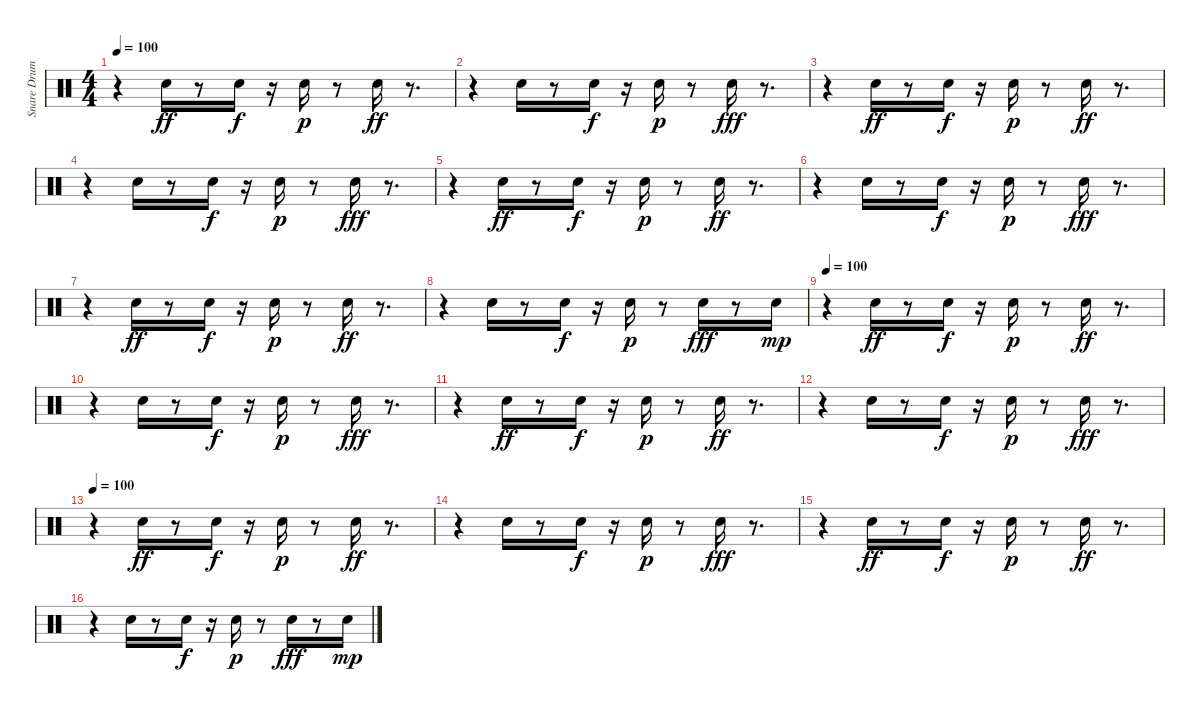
\track ("Snare Drums" "Snare Drum") {instrument percussion}
\staff {score}
\articulation defaults
\ts (4 4)
\tempo 100
\clef neutral
\ks c
r.4{dy fff} "Snare (hit) 2".16{dy ff} r.8 "Electric Snare (hit)".16{dy f} r.16 "Electric Snare (hit)".16{dy p} r.8 "Snare (hit) 2".16{dy ff} r.8{d} |
r.4 "Snare (hit) 2".16 r.8 "Electric Snare (hit)".16{dy f} r.16 "Electric Snare (hit)".16{dy p} r.8 "Snare (hit) 2".16{dy fff} r.8{d} |
r.4 "Snare (hit) 2".16{dy ff} r.8 "Electric Snare (hit)".16{dy f} r.16 "Electric Snare (hit)".16{dy p} r.8 "Snare (hit) 2".16{dy ff} r.8{d} |
r.4 "Snare (hit) 2".16 r.8 "Electric Snare (hit)".16{dy f} r.16 "Electric Snare (hit)".16{dy p} r.8 "Snare (hit) 2".16{dy fff} r.8{d} |
r.4 "Snare (hit) 2".16{dy ff} r.8 "Electric Snare (hit)".16{dy f} r.16 "Electric Snare (hit)".16{dy p} r.8 "Snare (hit) 2".16{dy ff} r.8{d} |
r.4 "Snare (hit) 2".16 r.8 "Electric Snare (hit)".16{dy f} r.16 "Electric Snare (hit)".16{dy p} r.8 "Snare (hit) 2".16{dy fff} r.8{d} |
r.4 "Snare (hit) 2".16{dy ff} r.8 "Electric Snare (hit)".16{dy f} r.16 "Electric Snare (hit)".16{dy p} r.8 "Snare (hit) 2".16{dy ff} r.8{d} |
r.4 "Snare (hit) 2".16 r.8 "Electric Snare (hit)".16{dy f} r.16 "Electric Snare (hit)".16{dy p} r.8 "Snare (hit) 2".16{dy fff} r.8 "Snare (hit) 2".16{dy mp} |
\tempo 100
r.4 "Snare (hit) 2".16{dy ff} r.8 "Electric Snare (hit)".16{dy f} r.16 "Electric Snare (hit)".16{dy p} r.8 "Snare (hit) 2".16{dy ff} r.8{d} |
r.4 "Snare (hit) 2".16 r.8 "Electric Snare (hit)".16{dy f} r.16 "Electric Snare (hit)".16{dy p} r.8 "Snare (hit) 2".16{dy fff} r.8{d} |
r.4 "Snare (hit) 2".16{dy ff} r.8 "Electric Snare (hit)".16{dy f} r.16 "Electric Snare (hit)".16{dy p} r.8 "Snare (hit) 2".16{dy ff} r.8{d} |
r.4 "Snare (hit) 2".16 r.8 "Electric Snare (hit)".16{dy f} r.16 "Electric Snare (hit)".16{dy p} r.8 "Snare (hit) 2".16{dy fff} r.8{d} |
\tempo 100
r.4 "Snare (hit) 2".16{dy ff} r.8 "Electric Snare (hit)".16{dy f} r.16 "Electric Snare (hit)".16{dy p} r.8 "Snare (hit) 2".16{dy ff} r.8{d} |
r.4 "Snare (hit) 2".16 r.8 "Electric Snare (hit)".16{dy f} r.16 "Electric Snare (hit)".16{dy p} r.8 "Snare (hit) 2".16{dy fff} r.8{d} |
r.4 "Snare (hit) 2".16{dy ff} r.8 "Electric Snare (hit)".16{dy f} r.16 "Electric Snare (hit)".16{dy p} r.8 "Snare (hit) 2".16{dy ff} r.8{d} |
r.4 "Snare (hit) 2".16 r.8 "Snare (hit) 2".16{dy f} r.16 "Snare (hit) 2".16{dy p} r.8 "Snare (hit) 2".16{dy fff} r.8 "Snare (hit) 2".16{dy mp}
